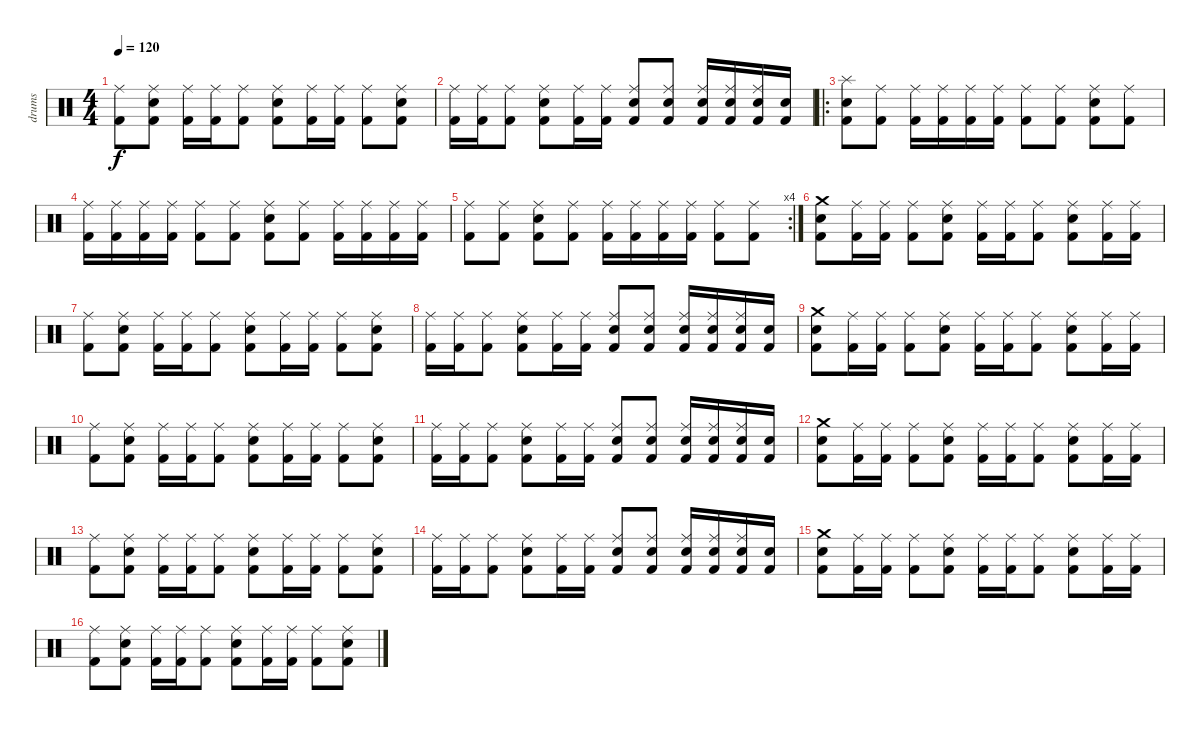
\track ("drums" "drums") {instrument percussion}
\staff {score}
\articulation defaults
\ts (4 4)
\tempo 120
\clef neutral
\ks c
("Kick (hit) 2" "Ride (middle)").8{dy f} ("Kick (hit) 2" "Snare (hit) 2" "Ride (middle)").8 ("Kick (hit) 2" "Ride (middle)").16 ("Kick (hit) 2" "Ride (middle)").16 ("Kick (hit) 2" "Ride (middle)").8 ("Kick (hit) 2" "Snare (hit) 2" "Ride (middle)").8 ("Kick (hit) 2" "Ride (middle)").16 ("Kick (hit) 2" "Ride (middle)").16 ("Kick (hit) 2" "Ride (middle)").8 ("Kick (hit) 2" "Snare (hit) 2" "Ride (middle)").8 |
("Kick (hit) 2" "Ride (middle)").16 ("Kick (hit) 2" "Ride (middle)").16 ("Kick (hit) 2" "Ride (middle)").8 ("Kick (hit) 2" "Snare (hit) 2" "Ride (middle)").8 ("Kick (hit) 2" "Ride (middle)").16 ("Kick (hit) 2" "Ride (middle)").16 ("Kick (hit) 2" "Snare (hit) 2" "Ride (middle)").8 ("Kick (hit) 2" "Snare (hit) 2" "Ride (middle)").8 ("Kick (hit) 2" "Snare (hit) 2" "Ride (middle)").16 ("Kick (hit) 2" "Snare (hit) 2" "Ride (middle)").16 ("Kick (hit) 2" "Snare (hit) 2" "Ride (middle)").16 ("Kick (hit) 2" "Snare (hit) 2").16 |
\ro
("Kick (hit) 2" "Snare (hit) 2" "Splash (hit)").8 ("Kick (hit) 2" "Ride (middle)").8 ("Kick (hit) 2" "Ride (middle)").16 ("Kick (hit) 2" "Ride (middle)").16 ("Kick (hit) 2" "Ride (middle)").16 ("Kick (hit) 2" "Ride (middle)").16 ("Kick (hit) 2" "Ride (middle)").8 ("Kick (hit) 2" "Ride (middle)").8 ("Kick (hit) 2" "Snare (hit) 2" "Ride (middle)").8 ("Kick (hit) 2" "Ride (middle)").8 |
("Kick (hit) 2" "Ride (middle)").16 ("Kick (hit) 2" "Ride (middle)").16 ("Kick (hit) 2" "Ride (middle)").16 ("Kick (hit) 2" "Ride (middle)").16 ("Kick (hit) 2" "Ride (middle)").8 ("Kick (hit) 2" "Ride (middle)").8 ("Kick (hit) 2" "Snare (hit) 2" "Ride (middle)").8 ("Kick (hit) 2" "Ride (middle)").8 ("Kick (hit) 2" "Ride (middle)").16 ("Kick (hit) 2" "Ride (middle)").16 ("Kick (hit) 2" "Ride (middle)").16 ("Kick (hit) 2" "Ride (middle)").16 |
\rc 4
("Kick (hit) 2" "Ride (middle)").8 ("Kick (hit) 2" "Ride (middle)").8 ("Kick (hit) 2" "Snare (hit) 2" "Ride (middle)").8 ("Kick (hit) 2" "Ride (middle)").8 ("Kick (hit) 2" "Ride (middle)").16 ("Kick (hit) 2" "Ride (middle)").16 ("Kick (hit) 2" "Ride (middle)").16 ("Kick (hit) 2" "Ride (middle)").16 ("Kick (hit) 2" "Ride (middle)").8 ("Kick (hit) 2" "Ride (middle)").8 |
("Kick (hit) 2" "Snare (hit) 2" "Crash medium (hit)").8 ("Kick (hit) 2" "Ride (middle)").16 ("Kick (hit) 2" "Ride (middle)").16 ("Kick (hit) 2" "Ride (middle)").8 ("Kick (hit) 2" "Snare (hit) 2" "Ride (middle)").8 ("Kick (hit) 2" "Ride (middle)").16 ("Kick (hit) 2" "Ride (middle)").16 ("Kick (hit) 2" "Ride (middle)").8 ("Kick (hit) 2" "Snare (hit) 2" "Ride (middle)").8 ("Kick (hit) 2" "Ride (middle)").16 ("Kick (hit) 2" "Ride (middle)").16 |
("Kick (hit) 2" "Ride (middle)").8 ("Kick (hit) 2" "Snare (hit) 2" "Ride (middle)").8 ("Kick (hit) 2" "Ride (middle)").16 ("Kick (hit) 2" "Ride (middle)").16 ("Kick (hit) 2" "Ride (middle)").8 ("Kick (hit) 2" "Snare (hit) 2" "Ride (middle)").8 ("Kick (hit) 2" "Ride (middle)").16 ("Kick (hit) 2" "Ride (middle)").16 ("Kick (hit) 2" "Ride (middle)").8 ("Kick (hit) 2" "Snare (hit) 2" "Ride (middle)").8 |
("Kick (hit) 2" "Ride (middle)").16 ("Kick (hit) 2" "Ride (middle)").16 ("Kick (hit) 2" "Ride (middle)").8 ("Kick (hit) 2" "Snare (hit) 2" "Ride (middle)").8 ("Kick (hit) 2" "Ride (middle)").16 ("Kick (hit) 2" "Ride (middle)").16 ("Kick (hit) 2" "Snare (hit) 2" "Ride (middle)").8 ("Kick (hit) 2" "Snare (hit) 2" "Ride (middle)").8 ("Kick (hit) 2" "Snare (hit) 2" "Ride (middle)").16 ("Kick (hit) 2" "Snare (hit) 2" "Ride (middle)").16 ("Kick (hit) 2" "Snare (hit) 2" "Ride (middle)").16 ("Kick (hit) 2" "Snare (hit) 2").16 |
("Kick (hit) 2" "Snare (hit) 2" "Crash medium (hit)").8 ("Kick (hit) 2" "Ride (middle)").16 ("Kick (hit) 2" "Ride (middle)").16 ("Kick (hit) 2" "Ride (middle)").8 ("Kick (hit) 2" "Snare (hit) 2" "Ride (middle)").8 ("Kick (hit) 2" "Ride (middle)").16 ("Kick (hit) 2" "Ride (middle)").16 ("Kick (hit) 2" "Ride (middle)").8 ("Kick (hit) 2" "Snare (hit) 2" "Ride (middle)").8 ("Kick (hit) 2" "Ride (middle)").16 ("Kick (hit) 2" "Ride (middle)").16 |
("Kick (hit) 2" "Ride (middle)").8 ("Kick (hit) 2" "Snare (hit) 2" "Ride (middle)").8 ("Kick (hit) 2" "Ride (middle)").16 ("Kick (hit) 2" "Ride (middle)").16 ("Kick (hit) 2" "Ride (middle)").8 ("Kick (hit) 2" "Snare (hit) 2" "Ride (middle)").8 ("Kick (hit) 2" "Ride (middle)").16 ("Kick (hit) 2" "Ride (middle)").16 ("Kick (hit) 2" "Ride (middle)").8 ("Kick (hit) 2" "Snare (hit) 2" "Ride (middle)").8 |
("Kick (hit) 2" "Ride (middle)").16 ("Kick (hit) 2" "Ride (middle)").16 ("Kick (hit) 2" "Ride (middle)").8 ("Kick (hit) 2" "Snare (hit) 2" "Ride (middle)").8 ("Kick (hit) 2" "Ride (middle)").16 ("Kick (hit) 2" "Ride (middle)").16 ("Kick (hit) 2" "Snare (hit) 2" "Ride (middle)").8 ("Kick (hit) 2" "Snare (hit) 2" "Ride (middle)").8 ("Kick (hit) 2" "Snare (hit) 2" "Ride (middle)").16 ("Kick (hit) 2" "Snare (hit) 2" "Ride (middle)").16 ("Kick (hit) 2" "Snare (hit) 2" "Ride (middle)").16 ("Kick (hit) 2" "Snare (hit) 2").16 |
("Kick (hit) 2" "Snare (hit) 2" "Crash medium (hit)").8 ("Kick (hit) 2" "Ride (middle)").16 ("Kick (hit) 2" "Ride (middle)").16 ("Kick (hit) 2" "Ride (middle)").8 ("Kick (hit) 2" "Snare (hit) 2" "Ride (middle)").8 ("Kick (hit) 2" "Ride (middle)").16 ("Kick (hit) 2" "Ride (middle)").16 ("Kick (hit) 2" "Ride (middle)").8 ("Kick (hit) 2" "Snare (hit) 2" "Ride (middle)").8 ("Kick (hit) 2" "Ride (middle)").16 ("Kick (hit) 2" "Ride (middle)").16 |
("Kick (hit) 2" "Ride (middle)").8 ("Kick (hit) 2" "Snare (hit) 2" "Ride (middle)").8 ("Kick (hit) 2" "Ride (middle)").16 ("Kick (hit) 2" "Ride (middle)").16 ("Kick (hit) 2" "Ride (middle)").8 ("Kick (hit) 2" "Snare (hit) 2" "Ride (middle)").8 ("Kick (hit) 2" "Ride (middle)").16 ("Kick (hit) 2" "Ride (middle)").16 ("Kick (hit) 2" "Ride (middle)").8 ("Kick (hit) 2" "Snare (hit) 2" "Ride (middle)").8 |
("Kick (hit) 2" "Ride (middle)").16 ("Kick (hit) 2" "Ride (middle)").16 ("Kick (hit) 2" "Ride (middle)").8 ("Kick (hit) 2" "Snare (hit) 2" "Ride (middle)").8 ("Kick (hit) 2" "Ride (middle)").16 ("Kick (hit) 2" "Ride (middle)").16 ("Kick (hit) 2" "Snare (hit) 2" "Ride (middle)").8 ("Kick (hit) 2" "Snare (hit) 2" "Ride (middle)").8 ("Kick (hit) 2" "Snare (hit) 2" "Ride (middle)").16 ("Kick (hit) 2" "Snare (hit) 2" "Ride (middle)").16 ("Kick (hit) 2" "Snare (hit) 2" "Ride (middle)").16 ("Kick (hit) 2" "Snare (hit) 2").16 |
("Kick (hit) 2" "Snare (hit) 2" "Crash medium (hit)").8 ("Kick (hit) 2" "Ride (middle)").16 ("Kick (hit) 2" "Ride (middle)").16 ("Kick (hit) 2" "Ride (middle)").8 ("Kick (hit) 2" "Snare (hit) 2" "Ride (middle)").8 ("Kick (hit) 2" "Ride (middle)").16 ("Kick (hit) 2" "Ride (middle)").16 ("Kick (hit) 2" "Ride (middle)").8 ("Kick (hit) 2" "Snare (hit) 2" "Ride (middle)").8 ("Kick (hit) 2" "Ride (middle)").16 ("Kick (hit) 2" "Ride (middle)").16 |
("Kick (hit) 2" "Ride (middle)").8 ("Kick (hit) 2" "Snare (hit) 2" "Ride (middle)").8 ("Kick (hit) 2" "Ride (middle)").16 ("Kick (hit) 2" "Ride (middle)").16 ("Kick (hit) 2" "Ride (middle)").8 ("Kick (hit) 2" "Snare (hit) 2" "Ride (middle)").8 ("Kick (hit) 2" "Ride (middle)").16 ("Kick (hit) 2" "Ride (middle)").16 ("Kick (hit) 2" "Ride (middle)").8 ("Kick (hit) 2" "Snare (hit) 2" "Ride (middle)").8
